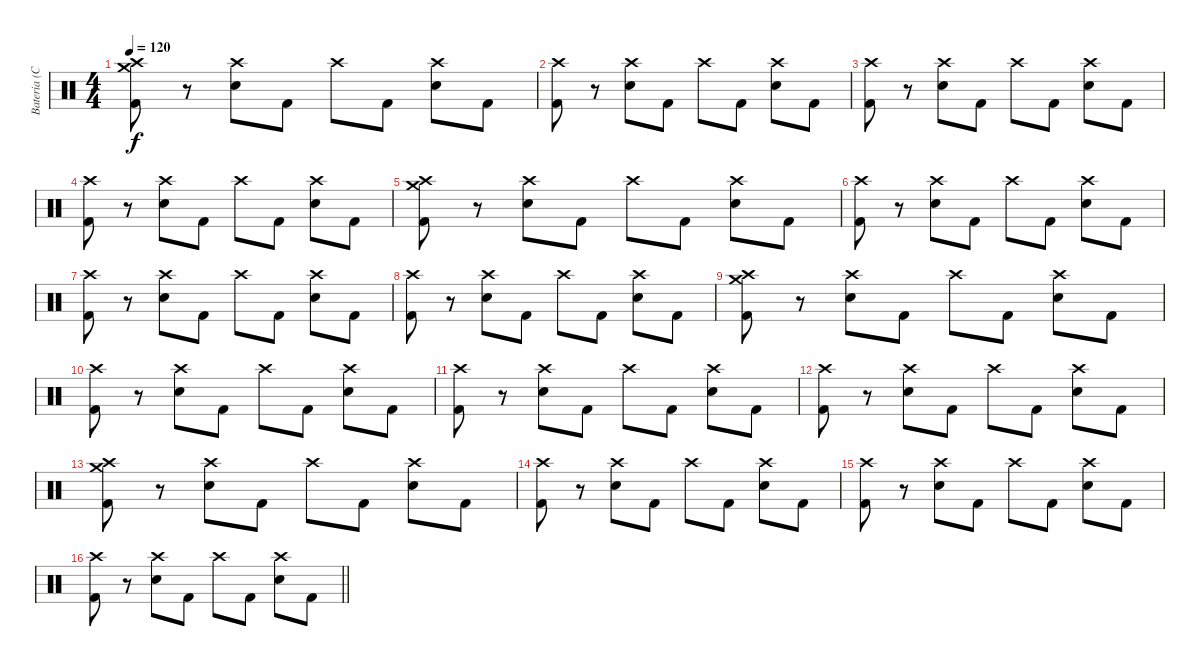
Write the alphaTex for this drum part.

\track ("Bateria (Ciro)" "Bateria (C") {instrument percussion}
\staff {score}
\articulation defaults
\ts (4 4)
\tempo 120
\clef neutral
\ks c
("Crash medium (hit)" "Crash high (hit)" "Kick (hit) 2").8{dy f} r.8 ("Crash high (hit)" "Snare (hit) 2").8 "Kick (hit) 2".8 "Crash high (hit)".8 "Kick (hit) 2".8 ("Crash high (hit)" "Snare (hit) 2").8 "Kick (hit) 2".8 |
("Crash high (hit)" "Kick (hit) 2").8 r.8 ("Crash high (hit)" "Snare (hit) 2").8 "Kick (hit) 2".8 "Crash high (hit)".8 "Kick (hit) 2".8 ("Crash high (hit)" "Snare (hit) 2").8 "Kick (hit) 2".8 |
("Crash high (hit)" "Kick (hit) 2").8 r.8 ("Crash high (hit)" "Snare (hit) 2").8 "Kick (hit) 2".8 "Crash high (hit)".8 "Kick (hit) 2".8 ("Crash high (hit)" "Snare (hit) 2").8 "Kick (hit) 2".8 |
("Crash high (hit)" "Kick (hit) 2").8 r.8 ("Crash high (hit)" "Snare (hit) 2").8 "Kick (hit) 2".8 "Crash high (hit)".8 "Kick (hit) 2".8 ("Crash high (hit)" "Snare (hit) 2").8 "Kick (hit) 2".8 |
("Crash medium (hit)" "Crash high (hit)" "Kick (hit) 2").8 r.8 ("Crash high (hit)" "Snare (hit) 2").8 "Kick (hit) 2".8 "Crash high (hit)".8 "Kick (hit) 2".8 ("Crash high (hit)" "Snare (hit) 2").8 "Kick (hit) 2".8 |
("Crash high (hit)" "Kick (hit) 2").8 r.8 ("Crash high (hit)" "Snare (hit) 2").8 "Kick (hit) 2".8 "Crash high (hit)".8 "Kick (hit) 2".8 ("Crash high (hit)" "Snare (hit) 2").8 "Kick (hit) 2".8 |
("Crash high (hit)" "Kick (hit) 2").8 r.8 ("Crash high (hit)" "Snare (hit) 2").8 "Kick (hit) 2".8 "Crash high (hit)".8 "Kick (hit) 2".8 ("Crash high (hit)" "Snare (hit) 2").8 "Kick (hit) 2".8 |
("Crash high (hit)" "Kick (hit) 2").8 r.8 ("Crash high (hit)" "Snare (hit) 2").8 "Kick (hit) 2".8 "Crash high (hit)".8 "Kick (hit) 2".8 ("Crash high (hit)" "Snare (hit) 2").8 "Kick (hit) 2".8 |
("Crash medium (hit)" "Crash high (hit)" "Kick (hit) 2").8 r.8 ("Crash high (hit)" "Snare (hit) 2").8 "Kick (hit) 2".8 "Crash high (hit)".8 "Kick (hit) 2".8 ("Crash high (hit)" "Snare (hit) 2").8 "Kick (hit) 2".8 |
("Crash high (hit)" "Kick (hit) 2").8 r.8 ("Crash high (hit)" "Snare (hit) 2").8 "Kick (hit) 2".8 "Crash high (hit)".8 "Kick (hit) 2".8 ("Crash high (hit)" "Snare (hit) 2").8 "Kick (hit) 2".8 |
("Crash high (hit)" "Kick (hit) 2").8 r.8 ("Crash high (hit)" "Snare (hit) 2").8 "Kick (hit) 2".8 "Crash high (hit)".8 "Kick (hit) 2".8 ("Crash high (hit)" "Snare (hit) 2").8 "Kick (hit) 2".8 |
("Crash high (hit)" "Kick (hit) 2").8 r.8 ("Crash high (hit)" "Snare (hit) 2").8 "Kick (hit) 2".8 "Crash high (hit)".8 "Kick (hit) 2".8 ("Crash high (hit)" "Snare (hit) 2").8 "Kick (hit) 2".8 |
("Crash medium (hit)" "Crash high (hit)" "Kick (hit) 2").8 r.8 ("Crash high (hit)" "Snare (hit) 2").8 "Kick (hit) 2".8 "Crash high (hit)".8 "Kick (hit) 2".8 ("Crash high (hit)" "Snare (hit) 2").8 "Kick (hit) 2".8 |
("Crash high (hit)" "Kick (hit) 2").8 r.8 ("Crash high (hit)" "Snare (hit) 2").8 "Kick (hit) 2".8 "Crash high (hit)".8 "Kick (hit) 2".8 ("Crash high (hit)" "Snare (hit) 2").8 "Kick (hit) 2".8 |
("Crash high (hit)" "Kick (hit) 2").8 r.8 ("Crash high (hit)" "Snare (hit) 2").8 "Kick (hit) 2".8 "Crash high (hit)".8 "Kick (hit) 2".8 ("Crash high (hit)" "Snare (hit) 2").8 "Kick (hit) 2".8 |
\barLineRight lightlight
("Crash high (hit)" "Kick (hit) 2").8 r.8 ("Crash high (hit)" "Snare (hit) 2").8 "Kick (hit) 2".8 "Crash high (hit)".8 "Kick (hit) 2".8 ("Crash high (hit)" "Snare (hit) 2").8 "Kick (hit) 2".8
